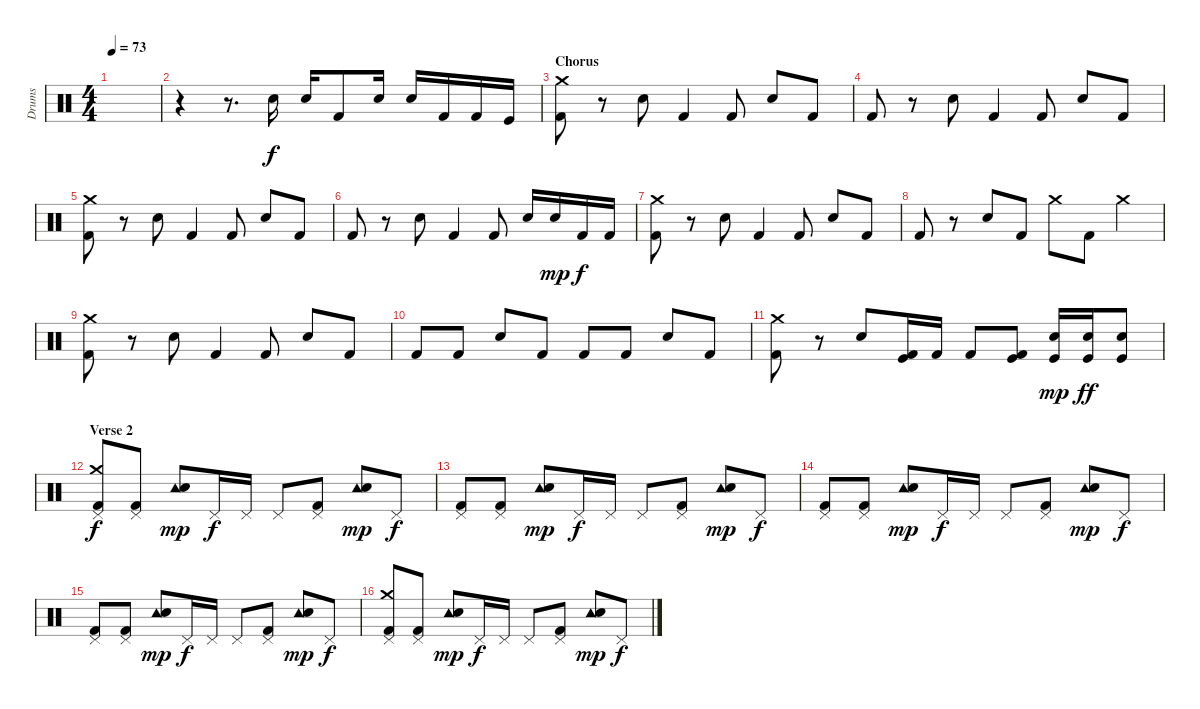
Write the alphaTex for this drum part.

\track ("Drums" "Drums") {instrument percussion}
\staff {score}
\articulation defaults
\ts (4 4)
\tempo 73
\clef neutral
\ks c
|
r.4 r.8{d} "Snare (hit) 2".16 "Snare (hit) 2".16 "Kick (hit) 2".8 "Snare (hit) 2".16 "Snare (hit) 2".16 "Kick (hit) 2".16 "Kick (hit) 2".16 "Kick (hit)".16 |
\section ("" "Chorus")
("Crash medium (hit)" "Kick (hit) 2").8 r.8 "Electric Snare (hit)".8 "Kick (hit) 2".4 "Kick (hit) 2".8 "Electric Snare (hit)".8 "Kick (hit) 2".8 |
"Kick (hit) 2".8 r.8 "Electric Snare (hit)".8 "Kick (hit) 2".4 "Kick (hit) 2".8 "Electric Snare (hit)".8 "Kick (hit) 2".8 |
("Crash medium (hit)" "Kick (hit) 2").8 r.8 "Electric Snare (hit)".8 "Kick (hit) 2".4 "Kick (hit) 2".8 "Electric Snare (hit)".8 "Kick (hit) 2".8 |
"Kick (hit) 2".8 r.8 "Electric Snare (hit)".8 "Kick (hit) 2".4 "Kick (hit) 2".8 "Snare (hit) 2".16 "Snare (hit) 2".16{dy mp} "Kick (hit) 2".16{dy f} "Kick (hit) 2".16 |
("Crash medium (hit)" "Kick (hit) 2").8 r.8 "Electric Snare (hit)".8 "Kick (hit) 2".4 "Kick (hit) 2".8 "Electric Snare (hit)".8 "Kick (hit) 2".8 |
"Kick (hit) 2".8 r.8 "Electric Snare (hit)".8 "Kick (hit) 2".8 "Crash medium (hit)".8 "Kick (hit) 2".8 "Crash medium (hit)".4 |
("Crash medium (hit)" "Kick (hit) 2").8 r.8 "Electric Snare (hit)".8 "Kick (hit) 2".4 "Kick (hit) 2".8 "Electric Snare (hit)".8 "Kick (hit) 2".8 |
"Kick (hit) 2".8 "Kick (hit) 2".8 "Electric Snare (hit)".8 "Kick (hit) 2".8 "Kick (hit) 2".8 "Kick (hit) 2".8 "Electric Snare (hit)".8 "Kick (hit) 2".8 |
("Crash medium (hit)" "Kick (hit) 2").8 r.8 "Electric Snare (hit)".8 ("Kick (hit) 2" "Kick (hit)").16 "Kick (hit) 2".16 "Kick (hit) 2".8 ("Kick (hit) 2" "Kick (hit)").8 ("Snare (hit) 2" "Kick (hit)").16{dy mp} ("Snare (hit) 2" "Kick (hit)").16{dy ff} ("Snare (hit) 2" "Kick (hit)").8 |
\section ("" "Verse 2")
("Crash medium (hit)" "Pedal Hi-Hat (hit)" "Kick (hit) 2").8{dy f} ("Pedal Hi-Hat (hit)" "Kick (hit) 2").8 ("Tambourine (hit)" "Snare (hit) 2").8{dy mp} "Pedal Hi-Hat (hit)".16{dy f} "Pedal Hi-Hat (hit)".16 "Pedal Hi-Hat (hit)".8 ("Pedal Hi-Hat (hit)" "Kick (hit) 2").8 ("Tambourine (hit)" "Snare (hit) 2").8{dy mp} "Pedal Hi-Hat (hit)".8{dy f} |
("Pedal Hi-Hat (hit)" "Kick (hit) 2").8 ("Pedal Hi-Hat (hit)" "Kick (hit) 2").8 ("Tambourine (hit)" "Snare (hit) 2").8{dy mp} "Pedal Hi-Hat (hit)".16{dy f} "Pedal Hi-Hat (hit)".16 "Pedal Hi-Hat (hit)".8 ("Pedal Hi-Hat (hit)" "Kick (hit) 2").8 ("Tambourine (hit)" "Snare (hit) 2").8{dy mp} "Pedal Hi-Hat (hit)".8{dy f} |
("Pedal Hi-Hat (hit)" "Kick (hit) 2").8 ("Pedal Hi-Hat (hit)" "Kick (hit) 2").8 ("Tambourine (hit)" "Snare (hit) 2").8{dy mp} "Pedal Hi-Hat (hit)".16{dy f} "Pedal Hi-Hat (hit)".16 "Pedal Hi-Hat (hit)".8 ("Pedal Hi-Hat (hit)" "Kick (hit) 2").8 ("Tambourine (hit)" "Snare (hit) 2").8{dy mp} "Pedal Hi-Hat (hit)".8{dy f} |
("Pedal Hi-Hat (hit)" "Kick (hit) 2").8 ("Pedal Hi-Hat (hit)" "Kick (hit) 2").8 ("Tambourine (hit)" "Snare (hit) 2").8{dy mp} "Pedal Hi-Hat (hit)".16{dy f} "Pedal Hi-Hat (hit)".16 "Pedal Hi-Hat (hit)".8 ("Pedal Hi-Hat (hit)" "Kick (hit) 2").8 ("Tambourine (hit)" "Snare (hit) 2").8{dy mp} "Pedal Hi-Hat (hit)".8{dy f} |
("Crash medium (hit)" "Pedal Hi-Hat (hit)" "Kick (hit) 2").8 ("Pedal Hi-Hat (hit)" "Kick (hit) 2").8 ("Tambourine (hit)" "Snare (hit) 2").8{dy mp} "Pedal Hi-Hat (hit)".16{dy f} "Pedal Hi-Hat (hit)".16 "Pedal Hi-Hat (hit)".8 ("Pedal Hi-Hat (hit)" "Kick (hit) 2").8 ("Tambourine (hit)" "Snare (hit) 2").8{dy mp} "Pedal Hi-Hat (hit)".8{dy f}
